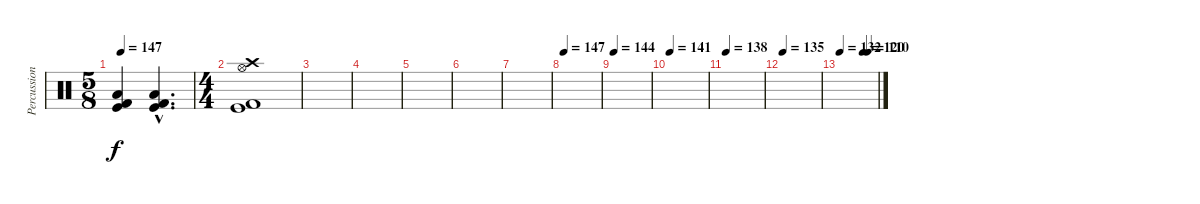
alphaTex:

\track ("Percussioni" "Percussion") {instrument percussion}
\staff {score}
\articulation defaults
\ts (5 8)
\tempo 147
\clef neutral
\ks c
("Low Floor Tom (hit)" "Kick (hit)" "Kick (hit) 2").4{dy f} ("Low Floor Tom (hit)"{hac} "Kick (hit)"{hac} "Kick (hit) 2"{hac}).4{d} |
\ts (4 4)
("Hi-Hat (open)" "Crash high (hit)" "Kick (hit)" "Kick (hit) 2").1 |
|
|
|
|
|
\tempo 147
|
\tempo 144
|
\tempo 141
|
\tempo 138
|
\tempo 135
|
\tempo 132
\tempo (120 0.625)
\tempo (110 0.75)
